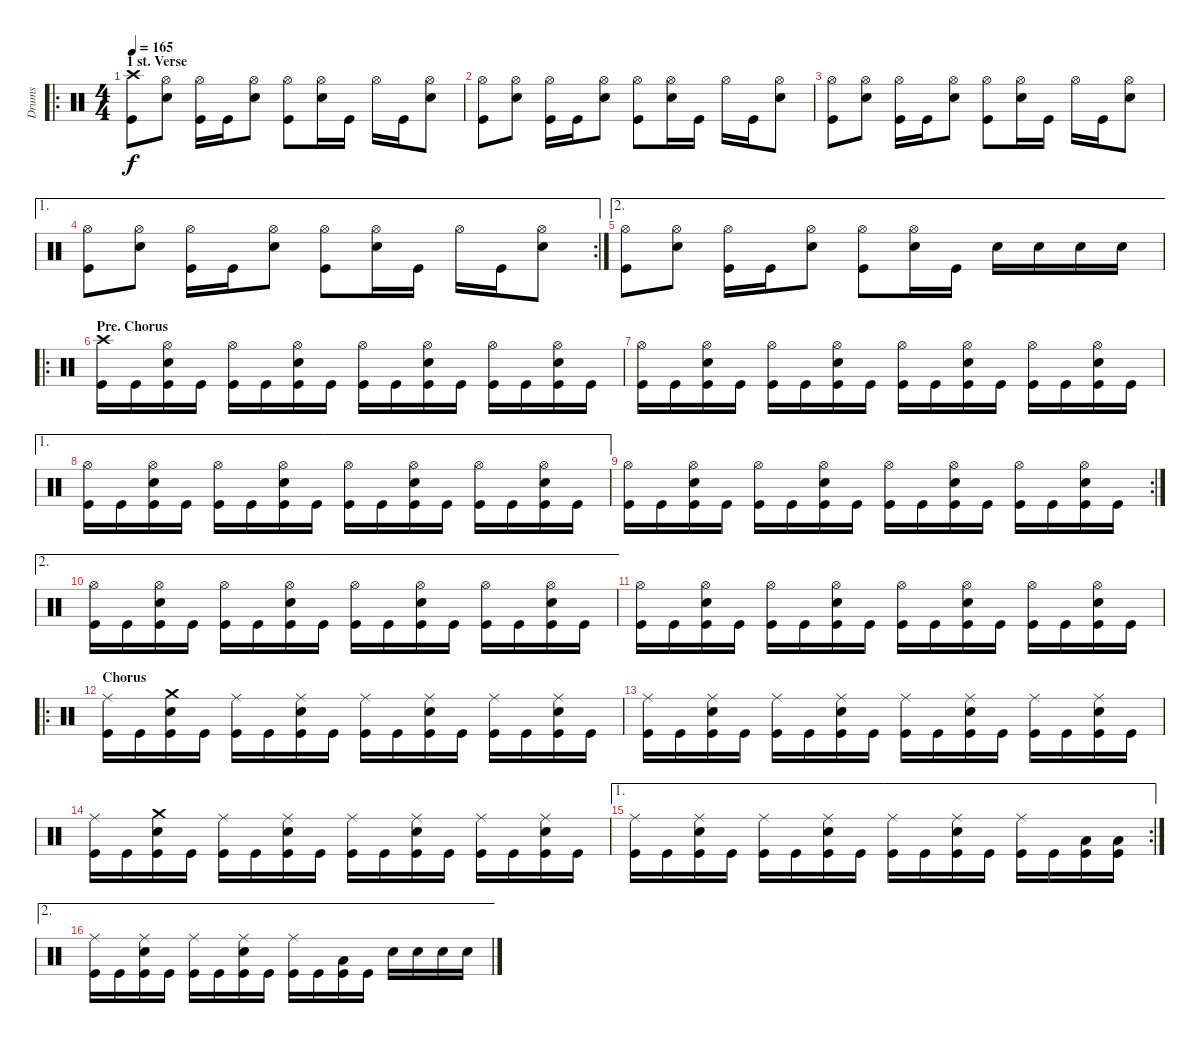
\track ("Drums" "Drums") {instrument percussion}
\staff {score}
\articulation defaults
\ro
\ts (4 4)
\section ("" "1 st. Verse")
\tempo 165
\clef neutral
\ks c
("Crash high (hit)" "Kick (hit)").8{dy f} ("Hi-Hat (open)" "Snare (hit) 2").8 ("Hi-Hat (open)" "Kick (hit)").16 "Kick (hit)".16 ("Hi-Hat (open)" "Snare (hit) 2").8 ("Hi-Hat (open)" "Kick (hit)").8 ("Hi-Hat (open)" "Snare (hit) 2").16 "Kick (hit)".16 "Hi-Hat (open)".16 "Kick (hit)".16 ("Hi-Hat (open)" "Snare (hit) 2").8 |
("Hi-Hat (open)" "Kick (hit)").8 ("Hi-Hat (open)" "Snare (hit) 2").8 ("Hi-Hat (open)" "Kick (hit)").16 "Kick (hit)".16 ("Hi-Hat (open)" "Snare (hit) 2").8 ("Hi-Hat (open)" "Kick (hit)").8 ("Hi-Hat (open)" "Snare (hit) 2").16 "Kick (hit)".16 "Hi-Hat (open)".16 "Kick (hit)".16 ("Hi-Hat (open)" "Snare (hit) 2").8 |
("Hi-Hat (open)" "Kick (hit)").8 ("Hi-Hat (open)" "Snare (hit) 2").8 ("Hi-Hat (open)" "Kick (hit)").16 "Kick (hit)".16 ("Hi-Hat (open)" "Snare (hit) 2").8 ("Hi-Hat (open)" "Kick (hit)").8 ("Hi-Hat (open)" "Snare (hit) 2").16 "Kick (hit)".16 "Hi-Hat (open)".16 "Kick (hit)".16 ("Hi-Hat (open)" "Snare (hit) 2").8 |
\ae 1
\rc 2
("Hi-Hat (open)" "Kick (hit)").8 ("Hi-Hat (open)" "Snare (hit) 2").8 ("Hi-Hat (open)" "Kick (hit)").16 "Kick (hit)".16 ("Hi-Hat (open)" "Snare (hit) 2").8 ("Hi-Hat (open)" "Kick (hit)").8 ("Hi-Hat (open)" "Snare (hit) 2").16 "Kick (hit)".16 "Hi-Hat (open)".16 "Kick (hit)".16 ("Hi-Hat (open)" "Snare (hit) 2").8 |
\ae 2
("Hi-Hat (open)" "Kick (hit)").8 ("Hi-Hat (open)" "Snare (hit) 2").8 ("Hi-Hat (open)" "Kick (hit)").16 "Kick (hit)".16 ("Hi-Hat (open)" "Snare (hit) 2").8 ("Hi-Hat (open)" "Kick (hit)").8 ("Hi-Hat (open)" "Snare (hit) 2").16 "Kick (hit)".16 "Snare (hit) 2".16 "Snare (hit) 2".16 "Snare (hit) 2".16 "Snare (hit) 2".16 |
\ro
\section ("" "Pre. Chorus")
("Crash high (hit)" "Kick (hit)").16 "Kick (hit)".16 ("Hi-Hat (open)" "Snare (hit) 2" "Kick (hit)").16 "Kick (hit)".16 ("Hi-Hat (open)" "Kick (hit)").16 "Kick (hit)".16 ("Hi-Hat (open)" "Snare (hit) 2" "Kick (hit)").16 "Kick (hit)".16 ("Hi-Hat (open)" "Kick (hit)").16 "Kick (hit)".16 ("Hi-Hat (open)" "Snare (hit) 2" "Kick (hit)").16 "Kick (hit)".16 ("Hi-Hat (open)" "Kick (hit)").16 "Kick (hit)".16 ("Hi-Hat (open)" "Snare (hit) 2" "Kick (hit)").16 "Kick (hit)".16 |
("Hi-Hat (open)" "Kick (hit)").16 "Kick (hit)".16 ("Hi-Hat (open)" "Snare (hit) 2" "Kick (hit)").16 "Kick (hit)".16 ("Hi-Hat (open)" "Kick (hit)").16 "Kick (hit)".16 ("Hi-Hat (open)" "Snare (hit) 2" "Kick (hit)").16 "Kick (hit)".16 ("Hi-Hat (open)" "Kick (hit)").16 "Kick (hit)".16 ("Hi-Hat (open)" "Snare (hit) 2" "Kick (hit)").16 "Kick (hit)".16 ("Hi-Hat (open)" "Kick (hit)").16 "Kick (hit)".16 ("Hi-Hat (open)" "Snare (hit) 2" "Kick (hit)").16 "Kick (hit)".16 |
\ae 1
("Hi-Hat (open)" "Kick (hit)").16 "Kick (hit)".16 ("Hi-Hat (open)" "Snare (hit) 2" "Kick (hit)").16 "Kick (hit)".16 ("Hi-Hat (open)" "Kick (hit)").16 "Kick (hit)".16 ("Hi-Hat (open)" "Snare (hit) 2" "Kick (hit)").16 "Kick (hit)".16 ("Hi-Hat (open)" "Kick (hit)").16 "Kick (hit)".16 ("Hi-Hat (open)" "Snare (hit) 2" "Kick (hit)").16 "Kick (hit)".16 ("Hi-Hat (open)" "Kick (hit)").16 "Kick (hit)".16 ("Hi-Hat (open)" "Snare (hit) 2" "Kick (hit)").16 "Kick (hit)".16 |
\rc 2
("Hi-Hat (open)" "Kick (hit)").16 "Kick (hit)".16 ("Hi-Hat (open)" "Snare (hit) 2" "Kick (hit)").16 "Kick (hit)".16 ("Hi-Hat (open)" "Kick (hit)").16 "Kick (hit)".16 ("Hi-Hat (open)" "Snare (hit) 2" "Kick (hit)").16 "Kick (hit)".16 ("Hi-Hat (open)" "Kick (hit)").16 "Kick (hit)".16 ("Hi-Hat (open)" "Snare (hit) 2" "Kick (hit)").16 "Kick (hit)".16 ("Hi-Hat (open)" "Kick (hit)").16 "Kick (hit)".16 ("Hi-Hat (open)" "Snare (hit) 2" "Kick (hit)").16 "Kick (hit)".16 |
\ae 2
("Hi-Hat (open)" "Kick (hit)").16 "Kick (hit)".16 ("Hi-Hat (open)" "Snare (hit) 2" "Kick (hit)").16 "Kick (hit)".16 ("Hi-Hat (open)" "Kick (hit)").16 "Kick (hit)".16 ("Hi-Hat (open)" "Snare (hit) 2" "Kick (hit)").16 "Kick (hit)".16 ("Hi-Hat (open)" "Kick (hit)").16 "Kick (hit)".16 ("Hi-Hat (open)" "Snare (hit) 2" "Kick (hit)").16 "Kick (hit)".16 ("Hi-Hat (open)" "Kick (hit)").16 "Kick (hit)".16 ("Hi-Hat (open)" "Snare (hit) 2" "Kick (hit)").16 "Kick (hit)".16 |
("Hi-Hat (open)" "Kick (hit)").16 "Kick (hit)".16 ("Hi-Hat (open)" "Snare (hit) 2" "Kick (hit)").16 "Kick (hit)".16 ("Hi-Hat (open)" "Kick (hit)").16 "Kick (hit)".16 ("Hi-Hat (open)" "Snare (hit) 2" "Kick (hit)").16 "Kick (hit)".16 ("Hi-Hat (open)" "Kick (hit)").16 "Kick (hit)".16 ("Hi-Hat (open)" "Snare (hit) 2" "Kick (hit)").16 "Kick (hit)".16 ("Hi-Hat (open)" "Kick (hit)").16 "Kick (hit)".16 ("Hi-Hat (open)" "Snare (hit) 2" "Kick (hit)").16 "Kick (hit)".16 |
\ro
\section ("" "Chorus")
("Ride (middle)" "Kick (hit)").16 "Kick (hit)".16 ("Crash medium (hit)" "Snare (hit) 2" "Kick (hit)").16 "Kick (hit)".16 ("Ride (middle)" "Kick (hit)").16 "Kick (hit)".16 ("Ride (middle)" "Snare (hit) 2" "Kick (hit)").16 "Kick (hit)".16 ("Ride (middle)" "Kick (hit)").16 "Kick (hit)".16 ("Ride (middle)" "Snare (hit) 2" "Kick (hit)").16 "Kick (hit)".16 ("Ride (middle)" "Kick (hit)").16 "Kick (hit)".16 ("Ride (middle)" "Snare (hit) 2" "Kick (hit)").16 "Kick (hit)".16 |
("Ride (middle)" "Kick (hit)").16 "Kick (hit)".16 ("Ride (middle)" "Snare (hit) 2" "Kick (hit)").16 "Kick (hit)".16 ("Ride (middle)" "Kick (hit)").16 "Kick (hit)".16 ("Ride (middle)" "Snare (hit) 2" "Kick (hit)").16 "Kick (hit)".16 ("Ride (middle)" "Kick (hit)").16 "Kick (hit)".16 ("Ride (middle)" "Snare (hit) 2" "Kick (hit)").16 "Kick (hit)".16 ("Ride (middle)" "Kick (hit)").16 "Kick (hit)".16 ("Ride (middle)" "Snare (hit) 2" "Kick (hit)").16 "Kick (hit)".16 |
("Ride (middle)" "Kick (hit)").16 "Kick (hit)".16 ("Crash medium (hit)" "Snare (hit) 2" "Kick (hit)").16 "Kick (hit)".16 ("Ride (middle)" "Kick (hit)").16 "Kick (hit)".16 ("Ride (middle)" "Snare (hit) 2" "Kick (hit)").16 "Kick (hit)".16 ("Ride (middle)" "Kick (hit)").16 "Kick (hit)".16 ("Ride (middle)" "Snare (hit) 2" "Kick (hit)").16 "Kick (hit)".16 ("Ride (middle)" "Kick (hit)").16 "Kick (hit)".16 ("Ride (middle)" "Snare (hit) 2" "Kick (hit)").16 "Kick (hit)".16 |
\ae 1
\rc 2
("Ride (middle)" "Kick (hit)").16 "Kick (hit)".16 ("Ride (middle)" "Snare (hit) 2" "Kick (hit)").16 "Kick (hit)".16 ("Ride (middle)" "Kick (hit)").16 "Kick (hit)".16 ("Ride (middle)" "Snare (hit) 2" "Kick (hit)").16 "Kick (hit)".16 ("Ride (middle)" "Kick (hit)").16 "Kick (hit)".16 ("Ride (middle)" "Snare (hit) 2" "Kick (hit)").16 "Kick (hit)".16 ("Ride (middle)" "Kick (hit)").16 "Kick (hit)".16 ("Low Tom (hit)" "Kick (hit)").16 ("Low Tom (hit)" "Kick (hit)").16 |
\ae 2
("Ride (middle)" "Kick (hit)").16 "Kick (hit)".16 ("Ride (middle)" "Snare (hit) 2" "Kick (hit)").16 "Kick (hit)".16 ("Ride (middle)" "Kick (hit)").16 "Kick (hit)".16 ("Ride (middle)" "Snare (hit) 2" "Kick (hit)").16 "Kick (hit)".16 ("Ride (middle)" "Kick (hit)").16 "Kick (hit)".16 ("Low Tom (hit)" "Kick (hit)").16 "Kick (hit)".16 "Snare (hit) 2".16 "Snare (hit) 2".16 "Snare (hit) 2".16 "Snare (hit) 2".16
